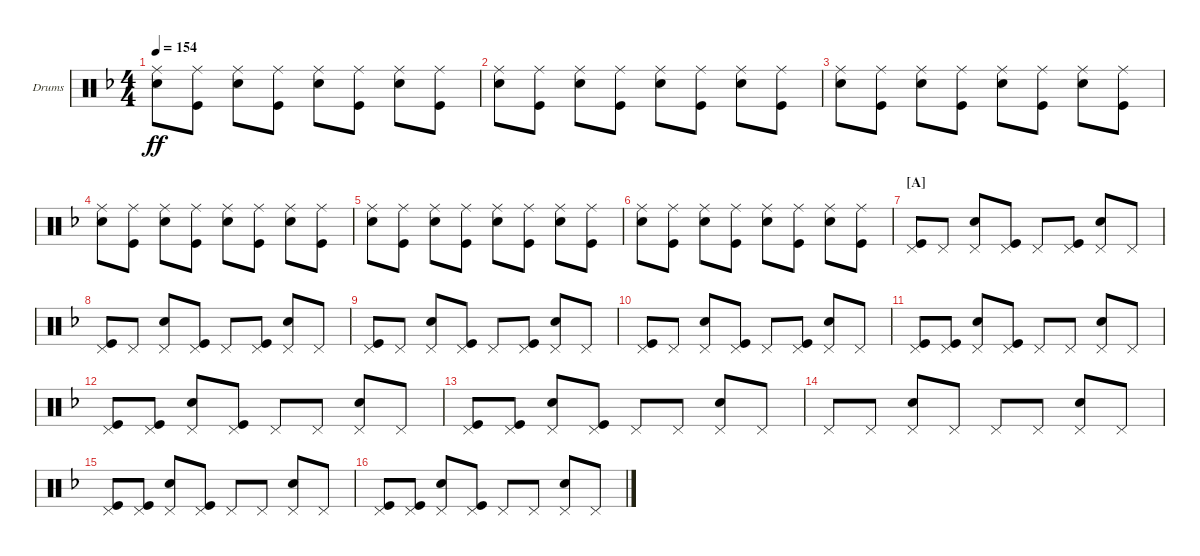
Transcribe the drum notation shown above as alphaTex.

\bracketExtendMode groupsimilarinstruments
\firstSystemTrackNameOrientation horizontal
\otherSystemsTrackNameOrientation horizontal
\track ("Fabrizio Moretti" "Drums") {instrument percussion}
\staff {score}
\articulation defaults
\ts (4 4)
\tempo 154
\clef neutral
\ks f
("Ride (middle)" "Snare (hit) 2").8{dy ff} ("Ride (middle)" "Kick (hit)").8 ("Ride (middle)" "Snare (hit) 2").8 ("Ride (middle)" "Kick (hit)").8 ("Ride (middle)" "Snare (hit) 2").8 ("Ride (middle)" "Kick (hit)").8 ("Ride (middle)" "Snare (hit) 2").8 ("Ride (middle)" "Kick (hit)").8 |
("Ride (middle)" "Snare (hit) 2").8 ("Ride (middle)" "Kick (hit)").8 ("Ride (middle)" "Snare (hit) 2").8 ("Ride (middle)" "Kick (hit)").8 ("Ride (middle)" "Snare (hit) 2").8 ("Ride (middle)" "Kick (hit)").8 ("Ride (middle)" "Snare (hit) 2").8 ("Ride (middle)" "Kick (hit)").8 |
("Ride (middle)" "Snare (hit) 2").8 ("Ride (middle)" "Kick (hit)").8 ("Ride (middle)" "Snare (hit) 2").8 ("Ride (middle)" "Kick (hit)").8 ("Ride (middle)" "Snare (hit) 2").8 ("Ride (middle)" "Kick (hit)").8 ("Ride (middle)" "Snare (hit) 2").8 ("Ride (middle)" "Kick (hit)").8 |
("Ride (middle)" "Snare (hit) 2").8 ("Ride (middle)" "Kick (hit)").8 ("Ride (middle)" "Snare (hit) 2").8 ("Ride (middle)" "Kick (hit)").8 ("Ride (middle)" "Snare (hit) 2").8 ("Ride (middle)" "Kick (hit)").8 ("Ride (middle)" "Snare (hit) 2").8 ("Ride (middle)" "Kick (hit)").8 |
("Ride (middle)" "Snare (hit) 2").8 ("Ride (middle)" "Kick (hit)").8 ("Ride (middle)" "Snare (hit) 2").8 ("Ride (middle)" "Kick (hit)").8 ("Ride (middle)" "Snare (hit) 2").8 ("Ride (middle)" "Kick (hit)").8 ("Ride (middle)" "Snare (hit) 2").8 ("Ride (middle)" "Kick (hit)").8 |
("Ride (middle)" "Snare (hit) 2").8 ("Ride (middle)" "Kick (hit)").8 ("Ride (middle)" "Snare (hit) 2").8 ("Ride (middle)" "Kick (hit)").8 ("Ride (middle)" "Snare (hit) 2").8 ("Ride (middle)" "Kick (hit)").8 ("Ride (middle)" "Snare (hit) 2").8 ("Ride (middle)" "Kick (hit)").8 |
\section ("A" "")
("Pedal Hi-Hat (hit)" "Kick (hit)").8 "Pedal Hi-Hat (hit)".8 ("Pedal Hi-Hat (hit)" "Snare (hit) 2").8 ("Pedal Hi-Hat (hit)" "Kick (hit)").8 "Pedal Hi-Hat (hit)".8 ("Pedal Hi-Hat (hit)" "Kick (hit)").8 ("Pedal Hi-Hat (hit)" "Snare (hit) 2").8 "Pedal Hi-Hat (hit)".8 |
("Pedal Hi-Hat (hit)" "Kick (hit)").8 "Pedal Hi-Hat (hit)".8 ("Pedal Hi-Hat (hit)" "Snare (hit) 2").8 ("Pedal Hi-Hat (hit)" "Kick (hit)").8 "Pedal Hi-Hat (hit)".8 ("Pedal Hi-Hat (hit)" "Kick (hit)").8 ("Pedal Hi-Hat (hit)" "Snare (hit) 2").8 "Pedal Hi-Hat (hit)".8 |
("Pedal Hi-Hat (hit)" "Kick (hit)").8 "Pedal Hi-Hat (hit)".8 ("Pedal Hi-Hat (hit)" "Snare (hit) 2").8 ("Pedal Hi-Hat (hit)" "Kick (hit)").8 "Pedal Hi-Hat (hit)".8 ("Pedal Hi-Hat (hit)" "Kick (hit)").8 ("Pedal Hi-Hat (hit)" "Snare (hit) 2").8 "Pedal Hi-Hat (hit)".8 |
("Pedal Hi-Hat (hit)" "Kick (hit)").8 "Pedal Hi-Hat (hit)".8 ("Pedal Hi-Hat (hit)" "Snare (hit) 2").8 ("Pedal Hi-Hat (hit)" "Kick (hit)").8 "Pedal Hi-Hat (hit)".8 ("Pedal Hi-Hat (hit)" "Kick (hit)").8 ("Pedal Hi-Hat (hit)" "Snare (hit) 2").8 "Pedal Hi-Hat (hit)".8 |
("Pedal Hi-Hat (hit)" "Kick (hit)").8 ("Pedal Hi-Hat (hit)" "Kick (hit)").8 ("Pedal Hi-Hat (hit)" "Snare (hit) 2").8 ("Pedal Hi-Hat (hit)" "Kick (hit)").8 "Pedal Hi-Hat (hit)".8 "Pedal Hi-Hat (hit)".8 ("Pedal Hi-Hat (hit)" "Snare (hit) 2").8 "Pedal Hi-Hat (hit)".8 |
("Pedal Hi-Hat (hit)" "Kick (hit)").8 ("Pedal Hi-Hat (hit)" "Kick (hit)").8 ("Pedal Hi-Hat (hit)" "Snare (hit) 2").8 ("Pedal Hi-Hat (hit)" "Kick (hit)").8 "Pedal Hi-Hat (hit)".8 "Pedal Hi-Hat (hit)".8 ("Pedal Hi-Hat (hit)" "Snare (hit) 2").8 "Pedal Hi-Hat (hit)".8 |
("Pedal Hi-Hat (hit)" "Kick (hit)").8 ("Pedal Hi-Hat (hit)" "Kick (hit)").8 ("Pedal Hi-Hat (hit)" "Snare (hit) 2").8 ("Pedal Hi-Hat (hit)" "Kick (hit)").8 "Pedal Hi-Hat (hit)".8 "Pedal Hi-Hat (hit)".8 ("Pedal Hi-Hat (hit)" "Snare (hit) 2").8 "Pedal Hi-Hat (hit)".8 |
"Pedal Hi-Hat (hit)".8 "Pedal Hi-Hat (hit)".8 ("Pedal Hi-Hat (hit)" "Snare (hit) 2").8 "Pedal Hi-Hat (hit)".8 "Pedal Hi-Hat (hit)".8 "Pedal Hi-Hat (hit)".8 ("Pedal Hi-Hat (hit)" "Snare (hit) 2").8 "Pedal Hi-Hat (hit)".8 |
("Pedal Hi-Hat (hit)" "Kick (hit)").8 ("Pedal Hi-Hat (hit)" "Kick (hit)").8 ("Pedal Hi-Hat (hit)" "Snare (hit) 2").8 ("Pedal Hi-Hat (hit)" "Kick (hit)").8 "Pedal Hi-Hat (hit)".8 "Pedal Hi-Hat (hit)".8 ("Pedal Hi-Hat (hit)" "Snare (hit) 2").8 "Pedal Hi-Hat (hit)".8 |
("Pedal Hi-Hat (hit)" "Kick (hit)").8 ("Pedal Hi-Hat (hit)" "Kick (hit)").8 ("Pedal Hi-Hat (hit)" "Snare (hit) 2").8 ("Pedal Hi-Hat (hit)" "Kick (hit)").8 "Pedal Hi-Hat (hit)".8 "Pedal Hi-Hat (hit)".8 ("Pedal Hi-Hat (hit)" "Snare (hit) 2").8 "Pedal Hi-Hat (hit)".8
